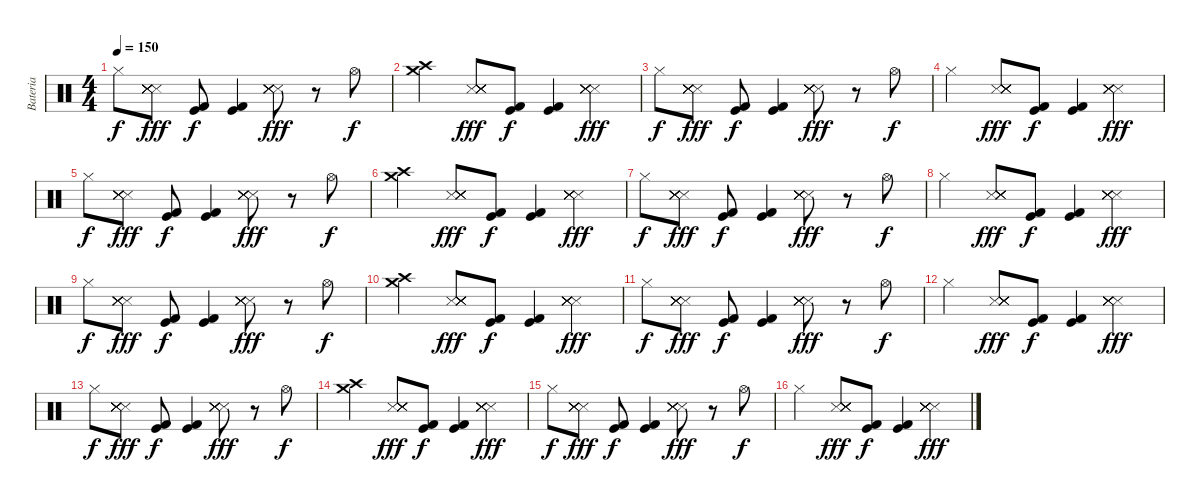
\track ("Bateria" "Bateria") {instrument percussion}
\staff {score}
\articulation defaults
\ts (4 4)
\tempo 150
\clef neutral
\ks c "Hi-Hat (closed)".8{dy f}
("Snare (side stick) 3" "Snare (side stick) 3" "Snare (side stick) 3" "Snare (side stick) 3" "Snare (side stick) 3" "Snare (side stick) 3").8{dy fff} ("Kick (hit) 2" "Kick (hit)").8{dy f} ("Kick (hit) 2" "Kick (hit)").4 ("Snare (side stick) 3" "Snare (side stick) 3" "Snare (side stick) 3" "Snare (side stick) 3" "Snare (side stick) 3" "Snare (side stick) 3").8{dy fff} r.8 "Hi-Hat (open)".8{dy f} |
("Crash high (hit)" "Crash medium (hit)").4 ("Snare (side stick) 3" "Snare (side stick) 3" "Snare (side stick) 3" "Snare (side stick) 3" "Snare (side stick) 3" "Snare (side stick) 3").8{dy fff} ("Kick (hit) 2" "Kick (hit)").8{dy f} ("Kick (hit) 2" "Kick (hit)").4 ("Snare (side stick) 3" "Snare (side stick) 3" "Snare (side stick) 3" "Snare (side stick) 3" "Snare (side stick) 3" "Snare (side stick) 3").4{dy fff} |
"Hi-Hat (closed)".8{dy f} ("Snare (side stick) 3" "Snare (side stick) 3" "Snare (side stick) 3" "Snare (side stick) 3" "Snare (side stick) 3" "Snare (side stick) 3").8{dy fff} ("Kick (hit) 2" "Kick (hit)").8{dy f} ("Kick (hit) 2" "Kick (hit)").4 ("Snare (side stick) 3" "Snare (side stick) 3" "Snare (side stick) 3" "Snare (side stick) 3" "Snare (side stick) 3" "Snare (side stick) 3").8{dy fff} r.8 "Hi-Hat (open)".8{dy f} |
"Hi-Hat (closed)".4 ("Snare (side stick) 3" "Snare (side stick) 3" "Snare (side stick) 3" "Snare (side stick) 3" "Snare (side stick) 3" "Snare (side stick) 3").8{dy fff} ("Kick (hit) 2" "Kick (hit)").8{dy f} ("Kick (hit) 2" "Kick (hit)").4 ("Snare (side stick) 3" "Snare (side stick) 3" "Snare (side stick) 3" "Snare (side stick) 3" "Snare (side stick) 3" "Snare (side stick) 3").4{dy fff} |
"Hi-Hat (closed)".8{dy f} ("Snare (side stick) 3" "Snare (side stick) 3" "Snare (side stick) 3" "Snare (side stick) 3" "Snare (side stick) 3" "Snare (side stick) 3").8{dy fff} ("Kick (hit) 2" "Kick (hit)").8{dy f} ("Kick (hit) 2" "Kick (hit)").4 ("Snare (side stick) 3" "Snare (side stick) 3" "Snare (side stick) 3" "Snare (side stick) 3" "Snare (side stick) 3" "Snare (side stick) 3").8{dy fff} r.8 "Hi-Hat (open)".8{dy f} |
("Crash high (hit)" "Crash medium (hit)").4 ("Snare (side stick) 3" "Snare (side stick) 3" "Snare (side stick) 3" "Snare (side stick) 3" "Snare (side stick) 3" "Snare (side stick) 3").8{dy fff} ("Kick (hit) 2" "Kick (hit)").8{dy f} ("Kick (hit) 2" "Kick (hit)").4 ("Snare (side stick) 3" "Snare (side stick) 3" "Snare (side stick) 3" "Snare (side stick) 3" "Snare (side stick) 3" "Snare (side stick) 3").4{dy fff} |
"Hi-Hat (closed)".8{dy f} ("Snare (side stick) 3" "Snare (side stick) 3" "Snare (side stick) 3" "Snare (side stick) 3" "Snare (side stick) 3" "Snare (side stick) 3").8{dy fff} ("Kick (hit) 2" "Kick (hit)").8{dy f} ("Kick (hit) 2" "Kick (hit)").4 ("Snare (side stick) 3" "Snare (side stick) 3" "Snare (side stick) 3" "Snare (side stick) 3" "Snare (side stick) 3" "Snare (side stick) 3").8{dy fff} r.8 "Hi-Hat (open)".8{dy f} |
"Hi-Hat (closed)".4 ("Snare (side stick) 3" "Snare (side stick) 3" "Snare (side stick) 3" "Snare (side stick) 3" "Snare (side stick) 3" "Snare (side stick) 3").8{dy fff} ("Kick (hit) 2" "Kick (hit)").8{dy f} ("Kick (hit) 2" "Kick (hit)").4 ("Snare (side stick) 3" "Snare (side stick) 3" "Snare (side stick) 3" "Snare (side stick) 3" "Snare (side stick) 3" "Snare (side stick) 3").4{dy fff} |
"Hi-Hat (closed)".8{dy f} ("Snare (side stick) 3" "Snare (side stick) 3" "Snare (side stick) 3" "Snare (side stick) 3" "Snare (side stick) 3" "Snare (side stick) 3").8{dy fff} ("Kick (hit) 2" "Kick (hit)").8{dy f} ("Kick (hit) 2" "Kick (hit)").4 ("Snare (side stick) 3" "Snare (side stick) 3" "Snare (side stick) 3" "Snare (side stick) 3" "Snare (side stick) 3" "Snare (side stick) 3").8{dy fff} r.8 "Hi-Hat (open)".8{dy f} |
("Crash high (hit)" "Crash medium (hit)").4 ("Snare (side stick) 3" "Snare (side stick) 3" "Snare (side stick) 3" "Snare (side stick) 3" "Snare (side stick) 3" "Snare (side stick) 3").8{dy fff} ("Kick (hit) 2" "Kick (hit)").8{dy f} ("Kick (hit) 2" "Kick (hit)").4 ("Snare (side stick) 3" "Snare (side stick) 3" "Snare (side stick) 3" "Snare (side stick) 3" "Snare (side stick) 3" "Snare (side stick) 3").4{dy fff} |
"Hi-Hat (closed)".8{dy f} ("Snare (side stick) 3" "Snare (side stick) 3" "Snare (side stick) 3" "Snare (side stick) 3" "Snare (side stick) 3" "Snare (side stick) 3").8{dy fff} ("Kick (hit) 2" "Kick (hit)").8{dy f} ("Kick (hit) 2" "Kick (hit)").4 ("Snare (side stick) 3" "Snare (side stick) 3" "Snare (side stick) 3" "Snare (side stick) 3" "Snare (side stick) 3" "Snare (side stick) 3").8{dy fff} r.8 "Hi-Hat (open)".8{dy f} |
"Hi-Hat (closed)".4 ("Snare (side stick) 3" "Snare (side stick) 3" "Snare (side stick) 3" "Snare (side stick) 3" "Snare (side stick) 3" "Snare (side stick) 3").8{dy fff} ("Kick (hit) 2" "Kick (hit)").8{dy f} ("Kick (hit) 2" "Kick (hit)").4 ("Snare (side stick) 3" "Snare (side stick) 3" "Snare (side stick) 3" "Snare (side stick) 3" "Snare (side stick) 3" "Snare (side stick) 3").4{dy fff} |
"Hi-Hat (closed)".8{dy f} ("Snare (side stick) 3" "Snare (side stick) 3" "Snare (side stick) 3" "Snare (side stick) 3" "Snare (side stick) 3" "Snare (side stick) 3").8{dy fff} ("Kick (hit) 2" "Kick (hit)").8{dy f} ("Kick (hit) 2" "Kick (hit)").4 ("Snare (side stick) 3" "Snare (side stick) 3" "Snare (side stick) 3" "Snare (side stick) 3" "Snare (side stick) 3" "Snare (side stick) 3").8{dy fff} r.8 "Hi-Hat (open)".8{dy f} |
("Crash high (hit)" "Crash medium (hit)").4 ("Snare (side stick) 3" "Snare (side stick) 3" "Snare (side stick) 3" "Snare (side stick) 3" "Snare (side stick) 3" "Snare (side stick) 3").8{dy fff} ("Kick (hit) 2" "Kick (hit)").8{dy f} ("Kick (hit) 2" "Kick (hit)").4 ("Snare (side stick) 3" "Snare (side stick) 3" "Snare (side stick) 3" "Snare (side stick) 3" "Snare (side stick) 3" "Snare (side stick) 3").4{dy fff} |
"Hi-Hat (closed)".8{dy f} ("Snare (side stick) 3" "Snare (side stick) 3" "Snare (side stick) 3" "Snare (side stick) 3" "Snare (side stick) 3" "Snare (side stick) 3").8{dy fff} ("Kick (hit) 2" "Kick (hit)").8{dy f} ("Kick (hit) 2" "Kick (hit)").4 ("Snare (side stick) 3" "Snare (side stick) 3" "Snare (side stick) 3" "Snare (side stick) 3" "Snare (side stick) 3" "Snare (side stick) 3").8{dy fff} r.8 "Hi-Hat (open)".8{dy f} |
"Hi-Hat (closed)".4 ("Snare (side stick) 3" "Snare (side stick) 3" "Snare (side stick) 3" "Snare (side stick) 3" "Snare (side stick) 3" "Snare (side stick) 3").8{dy fff} ("Kick (hit) 2" "Kick (hit)").8{dy f} ("Kick (hit) 2" "Kick (hit)").4 ("Snare (side stick) 3" "Snare (side stick) 3" "Snare (side stick) 3" "Snare (side stick) 3" "Snare (side stick) 3" "Snare (side stick) 3").4{dy fff}
